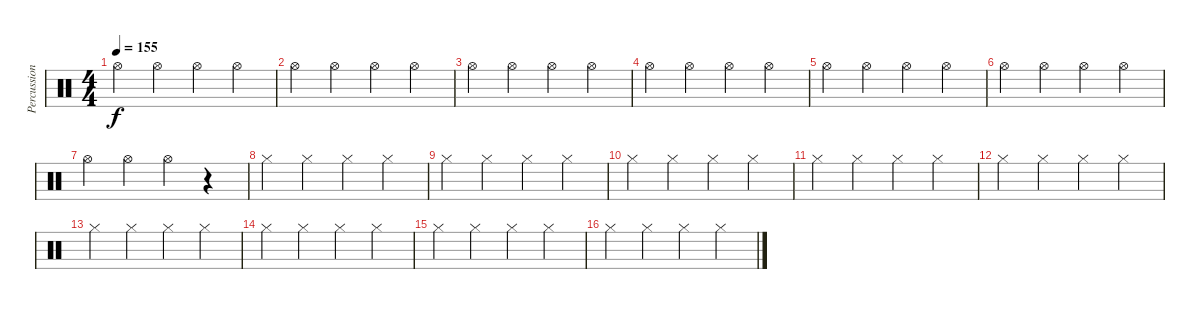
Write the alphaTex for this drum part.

\track ("Percussion" "Percussion") {instrument percussion}
\staff {score}
\articulation defaults
\ts (4 4)
\tempo 155
\clef neutral
\ks c "Hi-Hat (open)".4{dy f} "Hi-Hat (open)".4 "Hi-Hat (open)".4 "Hi-Hat (open)".4
|
"Hi-Hat (open)".4 "Hi-Hat (open)".4 "Hi-Hat (open)".4 "Hi-Hat (open)".4 |
"Hi-Hat (open)".4 "Hi-Hat (open)".4 "Hi-Hat (open)".4 "Hi-Hat (open)".4 |
"Hi-Hat (open)".4 "Hi-Hat (open)".4 "Hi-Hat (open)".4 "Hi-Hat (open)".4 |
"Hi-Hat (open)".4 "Hi-Hat (open)".4 "Hi-Hat (open)".4 "Hi-Hat (open)".4 |
"Hi-Hat (open)".4 "Hi-Hat (open)".4 "Hi-Hat (open)".4 "Hi-Hat (open)".4 |
"Hi-Hat (open)".4 "Hi-Hat (open)".4 "Hi-Hat (open)".4 r.4 |
"Hi-Hat (closed)".4 "Hi-Hat (closed)".4 "Hi-Hat (closed)".4 "Hi-Hat (closed)".4 |
"Hi-Hat (closed)".4 "Hi-Hat (closed)".4 "Hi-Hat (closed)".4 "Hi-Hat (closed)".4 |
"Hi-Hat (closed)".4 "Hi-Hat (closed)".4 "Hi-Hat (closed)".4 "Hi-Hat (closed)".4 |
"Hi-Hat (closed)".4 "Hi-Hat (closed)".4 "Hi-Hat (closed)".4 "Hi-Hat (closed)".4 |
"Hi-Hat (closed)".4 "Hi-Hat (closed)".4 "Hi-Hat (closed)".4 "Hi-Hat (closed)".4 |
"Hi-Hat (closed)".4 "Hi-Hat (closed)".4 "Hi-Hat (closed)".4 "Hi-Hat (closed)".4 |
"Hi-Hat (closed)".4 "Hi-Hat (closed)".4 "Hi-Hat (closed)".4 "Hi-Hat (closed)".4 |
"Hi-Hat (closed)".4 "Hi-Hat (closed)".4 "Hi-Hat (closed)".4 "Hi-Hat (closed)".4 |
"Hi-Hat (closed)".4 "Hi-Hat (closed)".4 "Hi-Hat (closed)".4 "Hi-Hat (closed)".4
